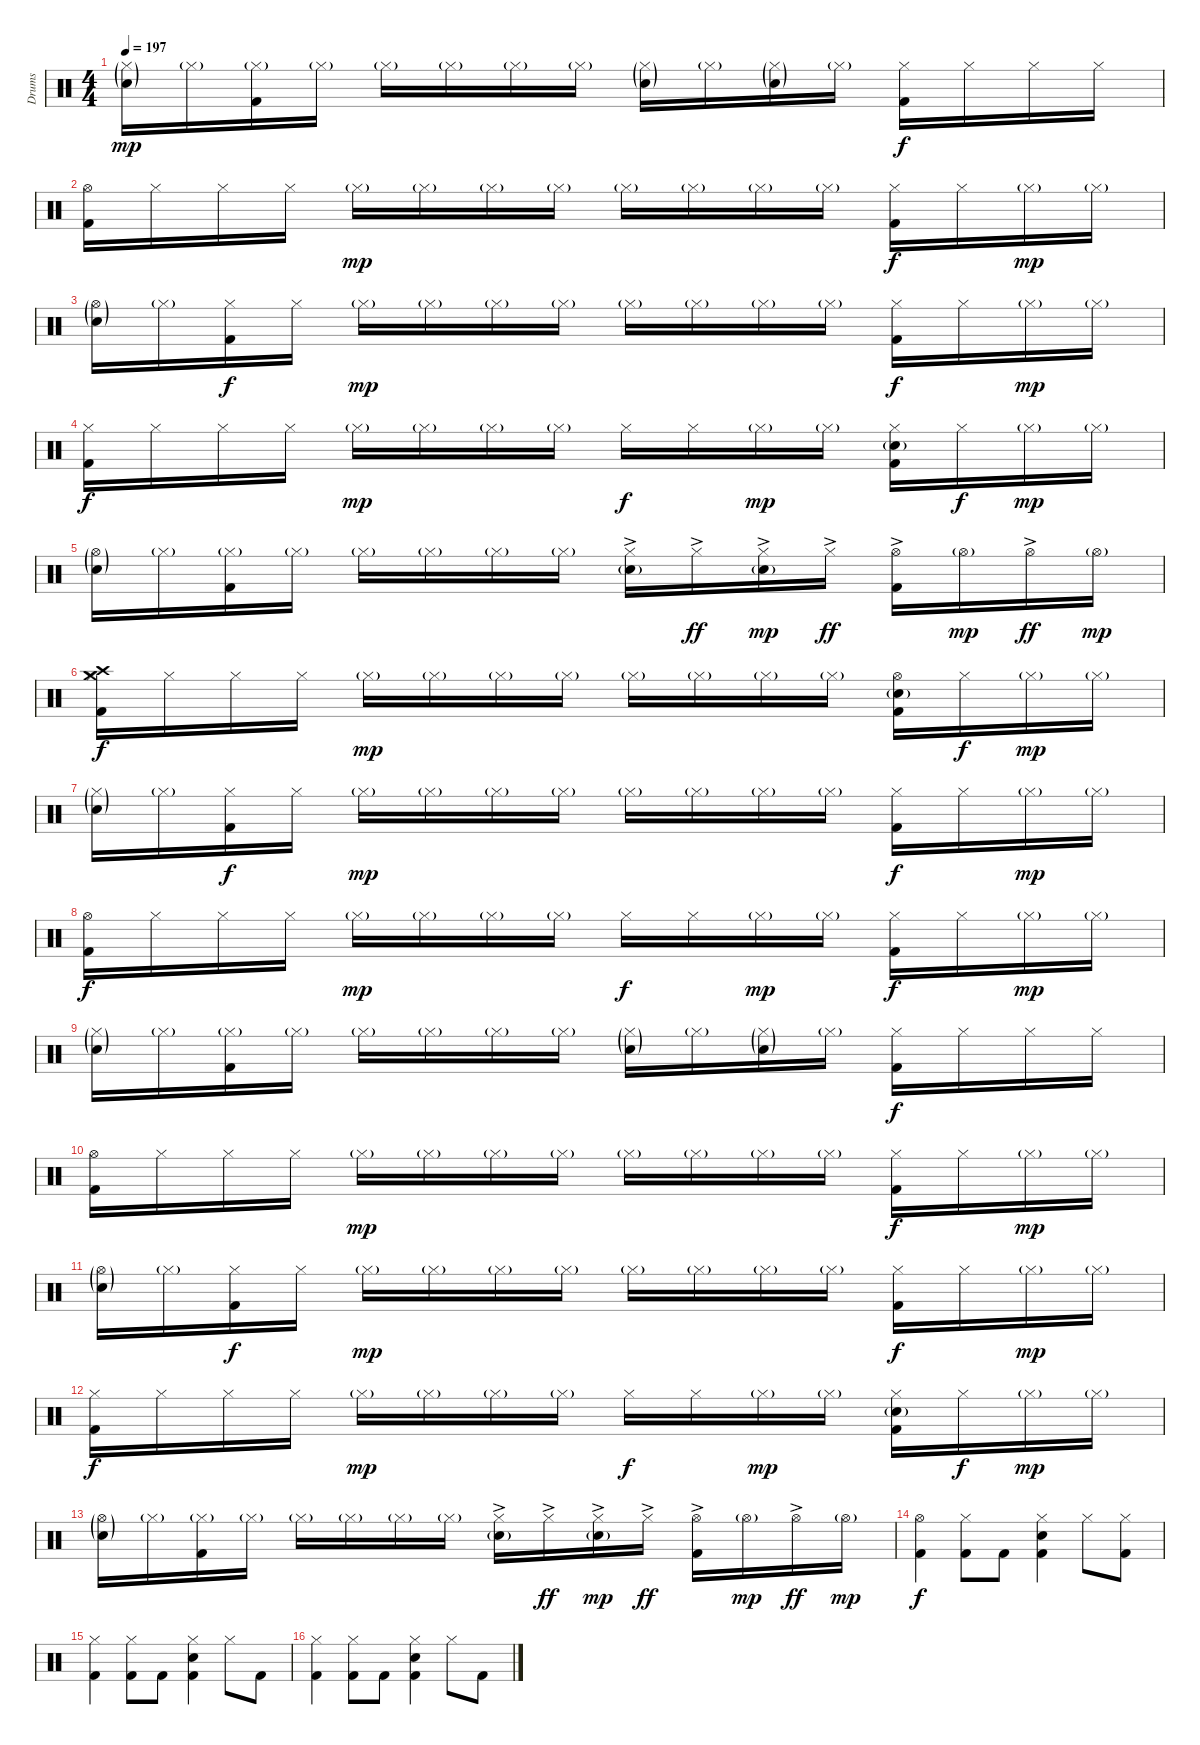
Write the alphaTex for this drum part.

\track ("Drums" "Drums") {instrument percussion}
\staff {score}
\articulation defaults
\ts (4 4)
\tempo 197
\clef neutral
\ks c
("Hi-Hat (closed)"{g} "Snare (hit) 2"{g}).16{dy mp} "Hi-Hat (closed)"{g}.16 ("Hi-Hat (closed)"{g} "Kick (hit) 2").16 "Hi-Hat (closed)"{g}.16 "Hi-Hat (closed)"{g}.16 "Hi-Hat (closed)"{g}.16 "Hi-Hat (closed)"{g}.16 "Hi-Hat (closed)"{g}.16 ("Hi-Hat (closed)"{g} "Snare (hit) 2"{g}).16 "Hi-Hat (closed)"{g}.16 ("Hi-Hat (closed)"{g} "Snare (hit) 2"{g}).16 "Hi-Hat (closed)"{g}.16 ("Hi-Hat (closed)" "Kick (hit) 2").16{dy f} "Hi-Hat (closed)".16 "Hi-Hat (closed)".16 "Hi-Hat (closed)".16 |
("Hi-Hat (open)" "Kick (hit) 2").16 "Hi-Hat (closed)".16 "Hi-Hat (closed)".16 "Hi-Hat (closed)".16 "Hi-Hat (closed)"{g}.16{dy mp} "Hi-Hat (closed)"{g}.16 "Hi-Hat (closed)"{g}.16 "Hi-Hat (closed)"{g}.16 "Hi-Hat (closed)"{g}.16 "Hi-Hat (closed)"{g}.16 "Hi-Hat (closed)"{g}.16 "Hi-Hat (closed)"{g}.16 ("Hi-Hat (closed)" "Kick (hit) 2").16{dy f} "Hi-Hat (closed)".16 "Hi-Hat (closed)"{g}.16{dy mp} "Hi-Hat (closed)"{g}.16 |
("Hi-Hat (open)"{g} "Snare (hit) 2"{g}).16 "Hi-Hat (closed)"{g}.16 ("Hi-Hat (closed)" "Kick (hit) 2").16{dy f} "Hi-Hat (closed)".16 "Hi-Hat (closed)"{g}.16{dy mp} "Hi-Hat (closed)"{g}.16 "Hi-Hat (closed)"{g}.16 "Hi-Hat (closed)"{g}.16 "Hi-Hat (closed)"{g}.16 "Hi-Hat (closed)"{g}.16 "Hi-Hat (closed)"{g}.16 "Hi-Hat (closed)"{g}.16 ("Hi-Hat (closed)" "Kick (hit) 2").16{dy f} "Hi-Hat (closed)".16 "Hi-Hat (closed)"{g}.16{dy mp} "Hi-Hat (closed)"{g}.16 |
("Hi-Hat (closed)" "Kick (hit) 2").16{dy f} "Hi-Hat (closed)".16 "Hi-Hat (closed)".16 "Hi-Hat (closed)".16 "Hi-Hat (closed)"{g}.16{dy mp} "Hi-Hat (closed)"{g}.16 "Hi-Hat (closed)"{g}.16 "Hi-Hat (closed)"{g}.16 "Hi-Hat (closed)".16{dy f} "Hi-Hat (closed)".16 "Hi-Hat (closed)"{g}.16{dy mp} "Hi-Hat (closed)"{g}.16 ("Hi-Hat (closed)" "Snare (hit) 2"{g} "Kick (hit) 2").16 "Hi-Hat (closed)".16{dy f} "Hi-Hat (closed)"{g}.16{dy mp} "Hi-Hat (closed)"{g}.16 |
("Hi-Hat (open)"{g} "Snare (hit) 2"{g}).16 "Hi-Hat (closed)"{g}.16 ("Hi-Hat (closed)"{g} "Kick (hit) 2").16 "Hi-Hat (closed)"{g}.16 "Hi-Hat (closed)"{g}.16 "Hi-Hat (closed)"{g}.16 "Hi-Hat (closed)"{g}.16 "Hi-Hat (closed)"{g}.16 ("Hi-Hat (closed)"{ac} "Snare (hit) 2"{g}).16 "Hi-Hat (closed)"{ac}.16{dy ff} ("Hi-Hat (closed)"{ac} "Snare (hit) 2"{g}).16{dy mp} "Hi-Hat (closed)"{ac}.16{dy ff} ("Hi-Hat (open)"{ac} "Kick (hit) 2").16 "Hi-Hat (open)"{g}.16{dy mp} "Hi-Hat (open)"{ac}.16{dy ff} "Hi-Hat (open)"{g}.16{dy mp} |
("Crash medium (hit)" "Crash high (hit)" "Hi-Hat (closed)" "Kick (hit) 2").16{dy f} "Hi-Hat (closed)".16 "Hi-Hat (closed)".16 "Hi-Hat (closed)".16 "Hi-Hat (closed)"{g}.16{dy mp} "Hi-Hat (closed)"{g}.16 "Hi-Hat (closed)"{g}.16 "Hi-Hat (closed)"{g}.16 "Hi-Hat (closed)"{g}.16 "Hi-Hat (closed)"{g}.16 "Hi-Hat (closed)"{g}.16 "Hi-Hat (closed)"{g}.16 ("Hi-Hat (open)" "Snare (hit) 2"{g} "Kick (hit) 2").16 "Hi-Hat (closed)".16{dy f} "Hi-Hat (closed)"{g}.16{dy mp} "Hi-Hat (closed)"{g}.16 |
("Hi-Hat (closed)"{g} "Snare (hit) 2"{g}).16 "Hi-Hat (closed)"{g}.16 ("Hi-Hat (closed)" "Kick (hit) 2").16{dy f} "Hi-Hat (closed)".16 "Hi-Hat (closed)"{g}.16{dy mp} "Hi-Hat (closed)"{g}.16 "Hi-Hat (closed)"{g}.16 "Hi-Hat (closed)"{g}.16 "Hi-Hat (closed)"{g}.16 "Hi-Hat (closed)"{g}.16 "Hi-Hat (closed)"{g}.16 "Hi-Hat (closed)"{g}.16 ("Hi-Hat (closed)" "Kick (hit) 2").16{dy f} "Hi-Hat (closed)".16 "Hi-Hat (closed)"{g}.16{dy mp} "Hi-Hat (closed)"{g}.16 |
("Hi-Hat (open)" "Kick (hit) 2").16{dy f} "Hi-Hat (closed)".16 "Hi-Hat (closed)".16 "Hi-Hat (closed)".16 "Hi-Hat (closed)"{g}.16{dy mp} "Hi-Hat (closed)"{g}.16 "Hi-Hat (closed)"{g}.16 "Hi-Hat (closed)"{g}.16 "Hi-Hat (closed)".16{dy f} "Hi-Hat (closed)".16 "Hi-Hat (closed)"{g}.16{dy mp} "Hi-Hat (closed)"{g}.16 ("Hi-Hat (closed)" "Kick (hit) 2").16{dy f} "Hi-Hat (closed)".16 "Hi-Hat (closed)"{g}.16{dy mp} "Hi-Hat (closed)"{g}.16 |
("Hi-Hat (closed)"{g} "Snare (hit) 2"{g}).16 "Hi-Hat (closed)"{g}.16 ("Hi-Hat (closed)"{g} "Kick (hit) 2").16 "Hi-Hat (closed)"{g}.16 "Hi-Hat (closed)"{g}.16 "Hi-Hat (closed)"{g}.16 "Hi-Hat (closed)"{g}.16 "Hi-Hat (closed)"{g}.16 ("Hi-Hat (closed)"{g} "Snare (hit) 2"{g}).16 "Hi-Hat (closed)"{g}.16 ("Hi-Hat (closed)"{g} "Snare (hit) 2"{g}).16 "Hi-Hat (closed)"{g}.16 ("Hi-Hat (closed)" "Kick (hit) 2").16{dy f} "Hi-Hat (closed)".16 "Hi-Hat (closed)".16 "Hi-Hat (closed)".16 |
("Hi-Hat (open)" "Kick (hit) 2").16 "Hi-Hat (closed)".16 "Hi-Hat (closed)".16 "Hi-Hat (closed)".16 "Hi-Hat (closed)"{g}.16{dy mp} "Hi-Hat (closed)"{g}.16 "Hi-Hat (closed)"{g}.16 "Hi-Hat (closed)"{g}.16 "Hi-Hat (closed)"{g}.16 "Hi-Hat (closed)"{g}.16 "Hi-Hat (closed)"{g}.16 "Hi-Hat (closed)"{g}.16 ("Hi-Hat (closed)" "Kick (hit) 2").16{dy f} "Hi-Hat (closed)".16 "Hi-Hat (closed)"{g}.16{dy mp} "Hi-Hat (closed)"{g}.16 |
("Hi-Hat (open)"{g} "Snare (hit) 2"{g}).16 "Hi-Hat (closed)"{g}.16 ("Hi-Hat (closed)" "Kick (hit) 2").16{dy f} "Hi-Hat (closed)".16 "Hi-Hat (closed)"{g}.16{dy mp} "Hi-Hat (closed)"{g}.16 "Hi-Hat (closed)"{g}.16 "Hi-Hat (closed)"{g}.16 "Hi-Hat (closed)"{g}.16 "Hi-Hat (closed)"{g}.16 "Hi-Hat (closed)"{g}.16 "Hi-Hat (closed)"{g}.16 ("Hi-Hat (closed)" "Kick (hit) 2").16{dy f} "Hi-Hat (closed)".16 "Hi-Hat (closed)"{g}.16{dy mp} "Hi-Hat (closed)"{g}.16 |
("Hi-Hat (closed)" "Kick (hit) 2").16{dy f} "Hi-Hat (closed)".16 "Hi-Hat (closed)".16 "Hi-Hat (closed)".16 "Hi-Hat (closed)"{g}.16{dy mp} "Hi-Hat (closed)"{g}.16 "Hi-Hat (closed)"{g}.16 "Hi-Hat (closed)"{g}.16 "Hi-Hat (closed)".16{dy f} "Hi-Hat (closed)".16 "Hi-Hat (closed)"{g}.16{dy mp} "Hi-Hat (closed)"{g}.16 ("Hi-Hat (closed)" "Snare (hit) 2"{g} "Kick (hit) 2").16 "Hi-Hat (closed)".16{dy f} "Hi-Hat (closed)"{g}.16{dy mp} "Hi-Hat (closed)"{g}.16 |
("Hi-Hat (open)"{g} "Snare (hit) 2"{g}).16 "Hi-Hat (closed)"{g}.16 ("Hi-Hat (closed)"{g} "Kick (hit) 2").16 "Hi-Hat (closed)"{g}.16 "Hi-Hat (closed)"{g}.16 "Hi-Hat (closed)"{g}.16 "Hi-Hat (closed)"{g}.16 "Hi-Hat (closed)"{g}.16 ("Hi-Hat (closed)"{ac} "Snare (hit) 2"{g}).16 "Hi-Hat (closed)"{ac}.16{dy ff} ("Hi-Hat (closed)"{ac} "Snare (hit) 2"{g}).16{dy mp} "Hi-Hat (closed)"{ac}.16{dy ff} ("Hi-Hat (open)"{ac} "Kick (hit) 2").16 "Hi-Hat (open)"{g}.16{dy mp} "Hi-Hat (open)"{ac}.16{dy ff} "Hi-Hat (open)"{g}.16{dy mp} |
("Hi-Hat (open)" "Kick (hit) 2").4{dy f volume 16} ("Hi-Hat (closed)" "Kick (hit) 2").8 "Kick (hit) 2".8 ("Hi-Hat (closed)" "Electric Snare (hit)" "Kick (hit) 2").4 "Hi-Hat (closed)".8 ("Hi-Hat (closed)" "Kick (hit) 2").8 |
("Hi-Hat (closed)" "Kick (hit) 2").4{volume 16} ("Hi-Hat (closed)" "Kick (hit) 2").8 "Kick (hit) 2".8 ("Hi-Hat (closed)" "Electric Snare (hit)" "Kick (hit) 2").4 "Hi-Hat (closed)".8 "Kick (hit) 2".8 |
("Hi-Hat (closed)" "Kick (hit) 2").4{volume 16} ("Hi-Hat (closed)" "Kick (hit) 2").8 "Kick (hit) 2".8 ("Hi-Hat (closed)" "Electric Snare (hit)" "Kick (hit) 2").4 "Hi-Hat (closed)".8 "Kick (hit) 2".8
